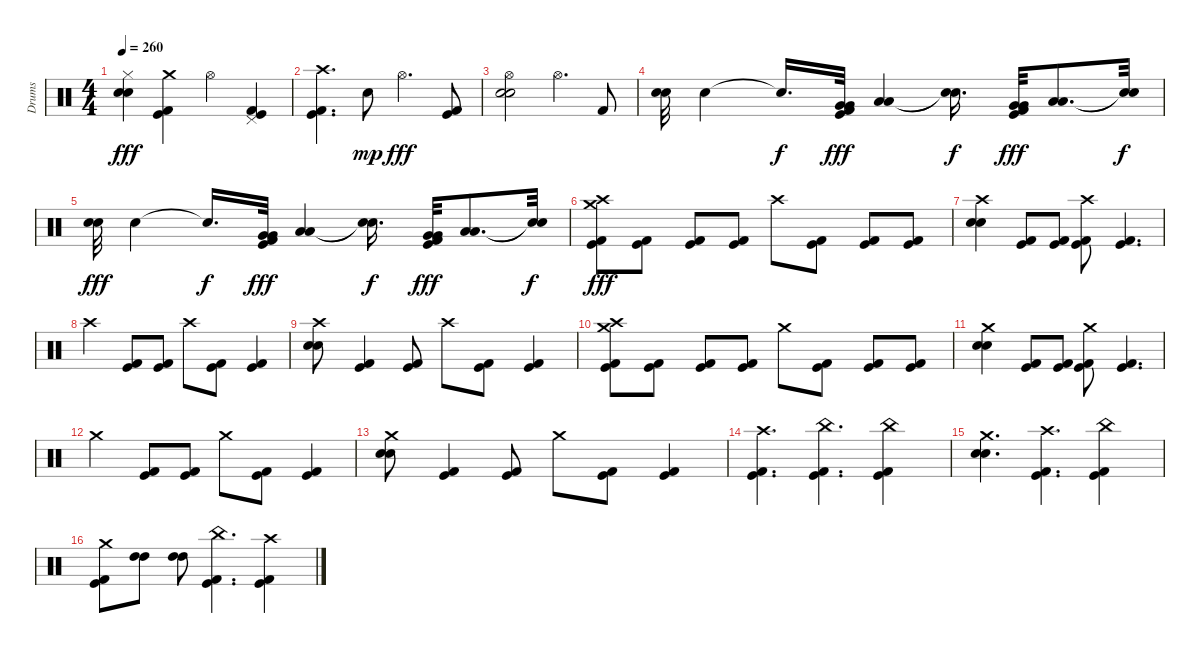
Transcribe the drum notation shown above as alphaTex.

\track ("Drums" "Drums") {instrument percussion}
\staff {score}
\articulation defaults
\ts (4 4)
\tempo 260
\clef neutral
\ks c
("Electric Snare (hit)" "Electric Snare (hit)" "Hi-Hat (closed)").4{dy fff} ("Kick (hit)" "Kick (hit) 2" "Crash medium (hit)").4 "Hi-Hat (open)".4 ("Kick (hit)" "Kick (hit) 2" "Pedal Hi-Hat (hit)").4 |
("Kick (hit)" "Kick (hit) 2" "Crash high (hit)").4{d} "Electric Snare (hit)".8{dy mp} "Hi-Hat (open)".4{d dy fff} ("Kick (hit)" "Kick (hit) 2").8 |
("Electric Snare (hit)" "Electric Snare (hit)" "Hi-Hat (open)").2 "Hi-Hat (open)".4{d} "Kick (hit) 2".8 |
("Electric Snare (hit)" "Electric Snare (hit)").32 "Electric Snare (hit)".4 "Snare (hit)"{t}.16{d dy f} ("Kick (hit)" "Kick (hit) 2" "Very Low Tom (hit)" "Very Low Tom (hit)").32{dy fff} ("Low Floor Tom (hit)" "Low Floor Tom (hit)").4 ("Snare (hit)"{t} "Snare (hit)"{t}).16{d dy f} ("Kick (hit)" "Kick (hit) 2" "Very Low Tom (hit)" "Very Low Tom (hit)").32{dy fff} ("Low Floor Tom (hit)" "Low Floor Tom (hit)").8{d} ("Snare (hit)"{t} "Snare (hit)"{t}).32{dy f} |
("Electric Snare (hit)" "Electric Snare (hit)").32{dy fff} "Electric Snare (hit)".4 "Snare (hit)"{t}.16{d dy f} ("Kick (hit)" "Kick (hit) 2" "Very Low Tom (hit)" "Very Low Tom (hit)").32{dy fff} ("Low Floor Tom (hit)" "Low Floor Tom (hit)").4 ("Snare (hit)"{t} "Snare (hit)"{t}).16{d dy f} ("Kick (hit)" "Kick (hit) 2" "Very Low Tom (hit)" "Very Low Tom (hit)").32{dy fff} ("Low Floor Tom (hit)" "Low Floor Tom (hit)").8{d} ("Snare (hit)"{t} "Snare (hit)"{t}).32{dy f} |
("Kick (hit)" "Kick (hit) 2" "Crash medium (hit)" "Crash high (hit)").8{dy fff} ("Kick (hit)" "Kick (hit) 2").8 ("Kick (hit)" "Kick (hit) 2").8 ("Kick (hit)" "Kick (hit) 2").8 "Crash high (hit)".8 ("Kick (hit)" "Kick (hit) 2").8 ("Kick (hit)" "Kick (hit) 2").8 ("Kick (hit)" "Kick (hit) 2").8 |
("Electric Snare (hit)" "Electric Snare (hit)" "Crash high (hit)").4 ("Kick (hit)" "Kick (hit) 2").8 ("Kick (hit)" "Kick (hit) 2").8 ("Kick (hit)" "Kick (hit) 2" "Crash high (hit)").8 ("Kick (hit)" "Kick (hit) 2").4{d} |
"Crash high (hit)".4 ("Kick (hit)" "Kick (hit) 2").8 ("Kick (hit)" "Kick (hit) 2").8 "Crash high (hit)".8 ("Kick (hit)" "Kick (hit) 2").8 ("Kick (hit)" "Kick (hit) 2").4 |
("Electric Snare (hit)" "Electric Snare (hit)" "Crash high (hit)").8 ("Kick (hit)" "Kick (hit) 2").4 ("Kick (hit)" "Kick (hit) 2").8 "Crash high (hit)".8 ("Kick (hit)" "Kick (hit) 2").8 ("Kick (hit)" "Kick (hit) 2").4 |
("Kick (hit)" "Kick (hit) 2" "Crash medium (hit)" "Crash high (hit)").8 ("Kick (hit)" "Kick (hit) 2").8 ("Kick (hit)" "Kick (hit) 2").8 ("Kick (hit)" "Kick (hit) 2").8 "Crash medium (hit)".8 ("Kick (hit)" "Kick (hit) 2").8 ("Kick (hit)" "Kick (hit) 2").8 ("Kick (hit)" "Kick (hit) 2").8 |
("Electric Snare (hit)" "Electric Snare (hit)" "Crash medium (hit)").4 ("Kick (hit)" "Kick (hit) 2").8 ("Kick (hit)" "Kick (hit) 2").8 ("Kick (hit)" "Kick (hit) 2" "Crash medium (hit)").8 ("Kick (hit)" "Kick (hit) 2").4{d} |
"Crash medium (hit)".4 ("Kick (hit)" "Kick (hit) 2").8 ("Kick (hit)" "Kick (hit) 2").8 "Crash medium (hit)".8 ("Kick (hit)" "Kick (hit) 2").8 ("Kick (hit)" "Kick (hit) 2").4 |
("Electric Snare (hit)" "Electric Snare (hit)" "Crash medium (hit)").8 ("Kick (hit)" "Kick (hit) 2").4 ("Kick (hit)" "Kick (hit) 2").8 "Crash medium (hit)".8 ("Kick (hit)" "Kick (hit) 2").8 ("Kick (hit)" "Kick (hit) 2").4 |
("Kick (hit)" "Kick (hit) 2" "Crash high (hit)").4{d} ("Kick (hit)" "Kick (hit) 2" "China (hit)").4{d} ("Kick (hit)" "Kick (hit) 2" "China (hit)").4 |
("Electric Snare (hit)" "Electric Snare (hit)" "Crash medium (hit)").4{d} ("Kick (hit)" "Kick (hit) 2" "Crash high (hit)").4{d} ("Kick (hit)" "Kick (hit) 2" "China (hit)").4 |
("Kick (hit)" "Kick (hit) 2" "Crash medium (hit)").8 ("High Tom (hit)" "High Tom (hit)").8 ("High Tom (hit)" "High Tom (hit)").8 ("Kick (hit)" "Kick (hit) 2" "China (hit)").4{d} ("Kick (hit)" "Kick (hit) 2" "Crash high (hit)").4
